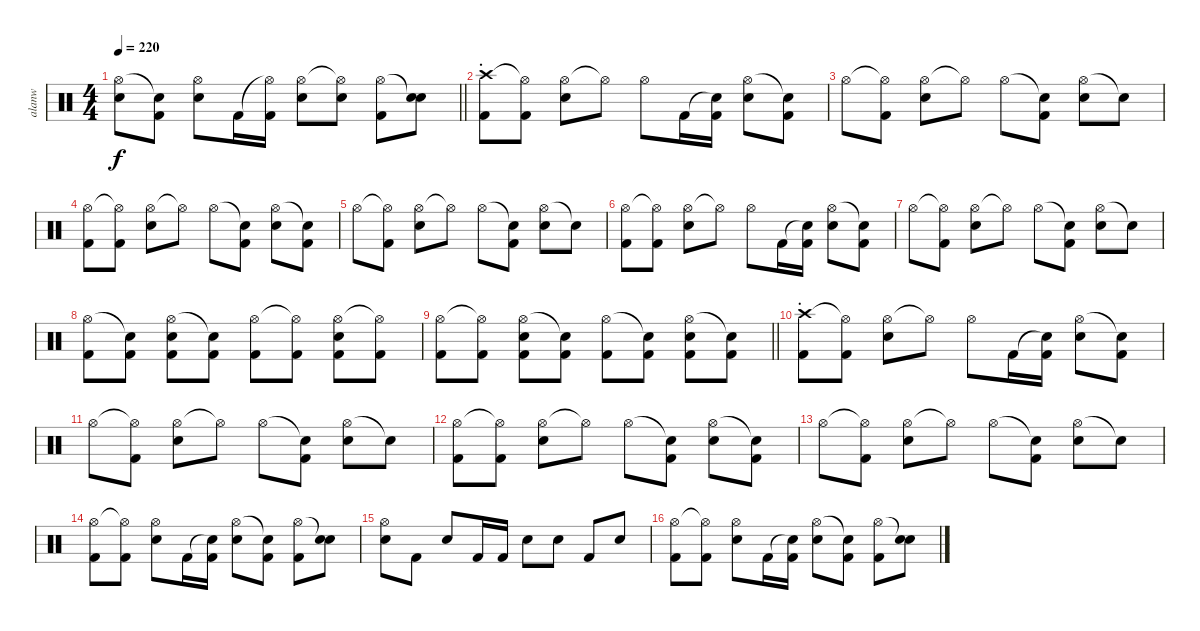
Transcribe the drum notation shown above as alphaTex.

\track ("alanw" "alanw") {instrument percussion}
\staff {score}
\articulation defaults
\ts (4 4)
\tempo 220
\clef neutral
\barLineRight lightlight
\ks c
("Hi-Hat (open)" "Electric Snare (hit)").8{dy f} ("Snare (hit)"{t} "Kick (hit) 2").8 ("Hi-Hat (open)" "Electric Snare (hit)").8 "Kick (hit) 2".16 ("Hi-Hat (open)"{t} "Kick (hit) 2").16 ("Hi-Hat (open)" "Electric Snare (hit)").8 ("Hi-Hat (open)"{t} "Electric Snare (hit)").8 ("Hi-Hat (open)" "Kick (hit) 2").8 ("Snare (hit)"{t} "Electric Snare (hit)").8 |
\section ("" ".")
("Crash high (hit)" "Kick (hit) 2").8 ("Hi-Hat (open)"{t} "Kick (hit) 2").8 ("Hi-Hat (open)" "Electric Snare (hit)").8 "Hi-Hat (open)"{t}.8 "Hi-Hat (open)".8 "Kick (hit) 2".16 ("Snare (hit)"{t} "Kick (hit) 2").16 ("Hi-Hat (open)" "Electric Snare (hit)").8 ("Snare (hit)"{t} "Kick (hit) 2").8 |
"Hi-Hat (open)".8 ("Hi-Hat (open)"{t} "Kick (hit) 2").8 ("Hi-Hat (open)" "Electric Snare (hit)").8 "Hi-Hat (open)"{t}.8 "Hi-Hat (open)".8 ("Snare (hit)"{t} "Kick (hit) 2").8 ("Hi-Hat (open)" "Electric Snare (hit)").8 "Snare (hit)"{t}.8 |
("Hi-Hat (open)" "Kick (hit) 2").8 ("Hi-Hat (open)"{t} "Kick (hit) 2").8 ("Hi-Hat (open)" "Electric Snare (hit)").8 "Hi-Hat (open)"{t}.8 "Hi-Hat (open)".8 ("Snare (hit)"{t} "Kick (hit) 2").8 ("Hi-Hat (open)" "Electric Snare (hit)").8 ("Snare (hit)"{t} "Kick (hit) 2").8 |
"Hi-Hat (open)".8 ("Hi-Hat (open)"{t} "Kick (hit) 2").8 ("Hi-Hat (open)" "Electric Snare (hit)").8 "Hi-Hat (open)"{t}.8 "Hi-Hat (open)".8 ("Snare (hit)"{t} "Kick (hit) 2").8 ("Hi-Hat (open)" "Electric Snare (hit)").8 "Snare (hit)"{t}.8 |
("Hi-Hat (open)" "Kick (hit) 2").8 ("Hi-Hat (open)"{t} "Kick (hit) 2").8 ("Hi-Hat (open)" "Electric Snare (hit)").8 "Hi-Hat (open)"{t}.8 "Hi-Hat (open)".8 "Kick (hit) 2".16 ("Snare (hit)"{t} "Kick (hit) 2").16 ("Hi-Hat (open)" "Electric Snare (hit)").8 ("Snare (hit)"{t} "Kick (hit) 2").8 |
"Hi-Hat (open)".8 ("Hi-Hat (open)"{t} "Kick (hit) 2").8 ("Hi-Hat (open)" "Electric Snare (hit)").8 "Hi-Hat (open)"{t}.8 "Hi-Hat (open)".8 ("Snare (hit)"{t} "Kick (hit) 2").8 ("Hi-Hat (open)" "Electric Snare (hit)").8 "Snare (hit)"{t}.8 |
("Hi-Hat (open)" "Kick (hit) 2").8 ("Snare (hit)"{t} "Kick (hit) 2").8 ("Hi-Hat (open)" "Electric Snare (hit)" "Kick (hit) 2").8 ("Snare (hit)"{t} "Kick (hit) 2").8 ("Hi-Hat (open)" "Kick (hit) 2").8 ("Hi-Hat (open)"{t} "Kick (hit) 2").8 ("Hi-Hat (open)" "Electric Snare (hit)" "Kick (hit) 2").8 ("Hi-Hat (open)"{t} "Kick (hit) 2").8 |
\barLineRight lightlight
("Hi-Hat (open)" "Kick (hit) 2").8 ("Hi-Hat (open)"{t} "Kick (hit) 2").8 ("Hi-Hat (open)" "Electric Snare (hit)" "Kick (hit) 2").8 ("Snare (hit)"{t} "Kick (hit) 2").8 ("Hi-Hat (open)" "Kick (hit) 2").8 ("Snare (hit)"{t} "Kick (hit) 2").8 ("Hi-Hat (open)" "Electric Snare (hit)" "Kick (hit) 2").8 ("Snare (hit)"{t} "Kick (hit) 2").8 |
\section ("" ".")
("Crash high (hit)" "Kick (hit) 2").8 ("Hi-Hat (open)"{t} "Kick (hit) 2").8 ("Hi-Hat (open)" "Electric Snare (hit)").8 "Hi-Hat (open)"{t}.8 "Hi-Hat (open)".8 "Kick (hit) 2".16 ("Snare (hit)"{t} "Kick (hit) 2").16 ("Hi-Hat (open)" "Electric Snare (hit)").8 ("Snare (hit)"{t} "Kick (hit) 2").8 |
"Hi-Hat (open)".8 ("Hi-Hat (open)"{t} "Kick (hit) 2").8 ("Hi-Hat (open)" "Electric Snare (hit)").8 "Hi-Hat (open)"{t}.8 "Hi-Hat (open)".8 ("Snare (hit)"{t} "Kick (hit) 2").8 ("Hi-Hat (open)" "Electric Snare (hit)").8 "Snare (hit)"{t}.8 |
("Hi-Hat (open)" "Kick (hit) 2").8 ("Hi-Hat (open)"{t} "Kick (hit) 2").8 ("Hi-Hat (open)" "Electric Snare (hit)").8 "Hi-Hat (open)"{t}.8 "Hi-Hat (open)".8 ("Snare (hit)"{t} "Kick (hit) 2").8 ("Hi-Hat (open)" "Electric Snare (hit)").8 ("Snare (hit)"{t} "Kick (hit) 2").8 |
"Hi-Hat (open)".8 ("Hi-Hat (open)"{t} "Kick (hit) 2").8 ("Hi-Hat (open)" "Electric Snare (hit)").8 "Hi-Hat (open)"{t}.8 "Hi-Hat (open)".8 ("Snare (hit)"{t} "Kick (hit) 2").8 ("Hi-Hat (open)" "Electric Snare (hit)").8 "Snare (hit)"{t}.8 |
("Hi-Hat (open)" "Kick (hit) 2").8 ("Hi-Hat (open)"{t} "Kick (hit) 2").8 ("Hi-Hat (open)" "Electric Snare (hit)").8 "Kick (hit) 2".16 ("Snare (hit)"{t} "Kick (hit) 2").16 ("Hi-Hat (open)" "Electric Snare (hit)").8 ("Snare (hit)"{t} "Kick (hit) 2").8 ("Hi-Hat (open)" "Kick (hit) 2").8 ("Snare (hit)"{t} "Electric Snare (hit)").8 |
("Hi-Hat (open)" "Electric Snare (hit)").8 "Kick (hit) 2".8 "Electric Snare (hit)".8 "Kick (hit) 2".16 "Kick (hit) 2".16 "Electric Snare (hit)".8 "Electric Snare (hit)".8 "Kick (hit) 2".8 "Electric Snare (hit)".8 |
("Hi-Hat (open)" "Kick (hit) 2").8 ("Hi-Hat (open)"{t} "Kick (hit) 2").8 ("Hi-Hat (open)" "Electric Snare (hit)").8 "Kick (hit) 2".16 ("Snare (hit)"{t} "Kick (hit) 2").16 ("Hi-Hat (open)" "Electric Snare (hit)").8 ("Snare (hit)"{t} "Kick (hit) 2").8 ("Hi-Hat (open)" "Kick (hit) 2").8 ("Snare (hit)"{t} "Electric Snare (hit)").8
